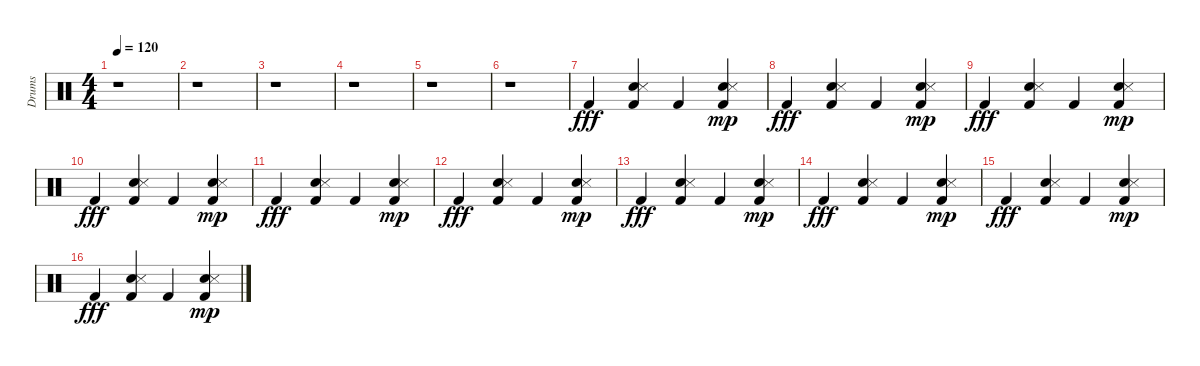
\track ("Drums" "Drums") {instrument percussion}
\staff {score}
\articulation defaults
\ts (4 4)
\tempo 120
\clef neutral
\ks c
r.1{dy fff} |
r.1 |
r.1 |
r.1 |
r.1 |
r.1 |
"Kick (hit) 2".4 ("Hand Clap (hit)" "Kick (hit) 2" "Snare (side stick) 3").4 "Kick (hit) 2".4 ("Kick (hit) 2" "Hand Clap (hit)" "Snare (side stick) 3").4{dy mp} |
"Kick (hit) 2".4{dy fff} ("Hand Clap (hit)" "Kick (hit) 2" "Snare (side stick) 3").4 "Kick (hit) 2".4 ("Kick (hit) 2" "Hand Clap (hit)" "Snare (side stick) 3").4{dy mp} |
"Kick (hit) 2".4{dy fff} ("Hand Clap (hit)" "Kick (hit) 2" "Snare (side stick) 3").4 "Kick (hit) 2".4 ("Kick (hit) 2" "Hand Clap (hit)" "Snare (side stick) 3").4{dy mp} |
"Kick (hit) 2".4{dy fff} ("Hand Clap (hit)" "Kick (hit) 2" "Snare (side stick) 3").4 "Kick (hit) 2".4 ("Kick (hit) 2" "Hand Clap (hit)" "Snare (side stick) 3").4{dy mp} |
"Kick (hit) 2".4{dy fff} ("Hand Clap (hit)" "Kick (hit) 2" "Snare (side stick) 3").4 "Kick (hit) 2".4 ("Kick (hit) 2" "Hand Clap (hit)" "Snare (side stick) 3").4{dy mp} |
"Kick (hit) 2".4{dy fff} ("Hand Clap (hit)" "Kick (hit) 2" "Snare (side stick) 3").4 "Kick (hit) 2".4 ("Kick (hit) 2" "Hand Clap (hit)" "Snare (side stick) 3").4{dy mp} |
"Kick (hit) 2".4{dy fff} ("Hand Clap (hit)" "Kick (hit) 2" "Snare (side stick) 3").4 "Kick (hit) 2".4 ("Kick (hit) 2" "Hand Clap (hit)" "Snare (side stick) 3").4{dy mp} |
"Kick (hit) 2".4{dy fff} ("Hand Clap (hit)" "Kick (hit) 2" "Snare (side stick) 3").4 "Kick (hit) 2".4 ("Kick (hit) 2" "Hand Clap (hit)" "Snare (side stick) 3").4{dy mp} |
"Kick (hit) 2".4{dy fff} ("Hand Clap (hit)" "Kick (hit) 2" "Snare (side stick) 3").4 "Kick (hit) 2".4 ("Kick (hit) 2" "Hand Clap (hit)" "Snare (side stick) 3").4{dy mp} |
"Kick (hit) 2".4{dy fff} ("Hand Clap (hit)" "Kick (hit) 2" "Snare (side stick) 3").4 "Kick (hit) 2".4 ("Kick (hit) 2" "Hand Clap (hit)" "Snare (side stick) 3").4{dy mp}
